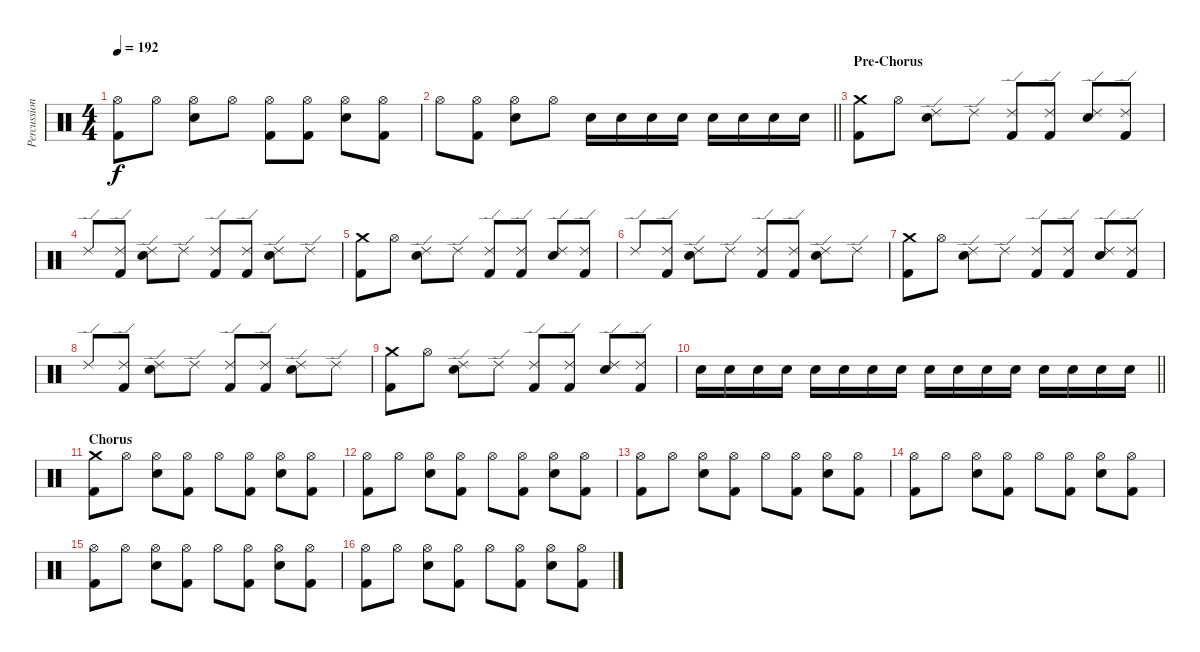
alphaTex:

\track ("Percussion" "Percussion") {instrument percussion}
\staff {score}
\articulation defaults
\ts (4 4)
\tempo 192
\clef neutral
\ks c
("Hi-Hat (open)" "Kick (hit) 2").8{dy f} "Hi-Hat (open)".8 ("Hi-Hat (open)" "Electric Snare (hit)").8 "Hi-Hat (open)".8 ("Hi-Hat (open)" "Kick (hit) 2").8 ("Hi-Hat (open)" "Kick (hit) 2").8 ("Hi-Hat (open)" "Electric Snare (hit)").8 ("Hi-Hat (open)" "Kick (hit) 2").8 |
\barLineRight lightlight "Hi-Hat (open)".8
("Hi-Hat (open)" "Kick (hit) 2").8 ("Hi-Hat (open)" "Electric Snare (hit)").8 "Hi-Hat (open)".8 "Electric Snare (hit)".16 "Electric Snare (hit)".16 "Electric Snare (hit)".16 "Electric Snare (hit)".16 "Electric Snare (hit)".16 "Electric Snare (hit)".16 "Electric Snare (hit)".16 "Electric Snare (hit)".16 |
\section ("" "Pre-Chorus")
("Crash medium (hit)" "Kick (hit) 2").8 "Hi-Hat (open)".8 ("Ride (edge) 2" "Electric Snare (hit)").8 "Ride (edge) 2".8 ("Ride (edge) 2" "Kick (hit) 2").8 ("Ride (edge) 2" "Kick (hit) 2").8 ("Ride (edge) 2" "Electric Snare (hit)").8 ("Ride (edge) 2" "Kick (hit) 2").8 |
"Ride (edge) 2".8 ("Ride (edge) 2" "Kick (hit) 2").8 ("Ride (edge) 2" "Electric Snare (hit)").8 "Ride (edge) 2".8 ("Ride (edge) 2" "Kick (hit) 2").8 ("Ride (edge) 2" "Kick (hit) 2").8 ("Ride (edge) 2" "Electric Snare (hit)").8 "Ride (edge) 2".8 |
("Crash medium (hit)" "Kick (hit) 2").8 "Hi-Hat (open)".8 ("Ride (edge) 2" "Electric Snare (hit)").8 "Ride (edge) 2".8 ("Ride (edge) 2" "Kick (hit) 2").8 ("Ride (edge) 2" "Kick (hit) 2").8 ("Ride (edge) 2" "Electric Snare (hit)").8 ("Ride (edge) 2" "Kick (hit) 2").8 |
"Ride (edge) 2".8 ("Ride (edge) 2" "Kick (hit) 2").8 ("Ride (edge) 2" "Electric Snare (hit)").8 "Ride (edge) 2".8 ("Ride (edge) 2" "Kick (hit) 2").8 ("Ride (edge) 2" "Kick (hit) 2").8 ("Ride (edge) 2" "Electric Snare (hit)").8 "Ride (edge) 2".8 |
("Crash medium (hit)" "Kick (hit) 2").8 "Hi-Hat (open)".8 ("Ride (edge) 2" "Electric Snare (hit)").8 "Ride (edge) 2".8 ("Ride (edge) 2" "Kick (hit) 2").8 ("Ride (edge) 2" "Kick (hit) 2").8 ("Ride (edge) 2" "Electric Snare (hit)").8 ("Ride (edge) 2" "Kick (hit) 2").8 |
"Ride (edge) 2".8 ("Ride (edge) 2" "Kick (hit) 2").8 ("Ride (edge) 2" "Electric Snare (hit)").8 "Ride (edge) 2".8 ("Ride (edge) 2" "Kick (hit) 2").8 ("Ride (edge) 2" "Kick (hit) 2").8 ("Ride (edge) 2" "Electric Snare (hit)").8 "Ride (edge) 2".8 |
("Crash medium (hit)" "Kick (hit) 2").8 "Hi-Hat (open)".8 ("Ride (edge) 2" "Electric Snare (hit)").8 "Ride (edge) 2".8 ("Ride (edge) 2" "Kick (hit) 2").8 ("Ride (edge) 2" "Kick (hit) 2").8 ("Ride (edge) 2" "Electric Snare (hit)").8 ("Ride (edge) 2" "Kick (hit) 2").8 |
\barLineRight lightlight "Electric Snare (hit)".16 "Electric Snare (hit)".16 "Electric Snare (hit)".16 "Electric Snare (hit)".16 "Electric Snare (hit)".16 "Electric Snare (hit)".16 "Electric Snare (hit)".16 "Electric Snare (hit)".16 "Electric Snare (hit)".16 "Electric Snare (hit)".16 "Electric Snare (hit)".16 "Electric Snare (hit)".16 "Electric Snare (hit)".16 "Electric Snare (hit)".16 "Electric Snare (hit)".16 "Electric Snare (hit)".16
|
\section ("" "Chorus")
("Crash medium (hit)" "Kick (hit) 2").8 "Hi-Hat (open)".8 ("Hi-Hat (open)" "Electric Snare (hit)").8 ("Hi-Hat (open)" "Kick (hit) 2").8 "Hi-Hat (open)".8 ("Hi-Hat (open)" "Kick (hit) 2").8 ("Hi-Hat (open)" "Electric Snare (hit)").8 ("Hi-Hat (open)" "Kick (hit) 2").8 |
("Hi-Hat (open)" "Kick (hit) 2").8 "Hi-Hat (open)".8 ("Hi-Hat (open)" "Electric Snare (hit)").8 ("Hi-Hat (open)" "Kick (hit) 2").8 "Hi-Hat (open)".8 ("Hi-Hat (open)" "Kick (hit) 2").8 ("Hi-Hat (open)" "Electric Snare (hit)").8 ("Hi-Hat (open)" "Kick (hit) 2").8 |
("Hi-Hat (open)" "Kick (hit) 2").8 "Hi-Hat (open)".8 ("Hi-Hat (open)" "Electric Snare (hit)").8 ("Hi-Hat (open)" "Kick (hit) 2").8 "Hi-Hat (open)".8 ("Hi-Hat (open)" "Kick (hit) 2").8 ("Hi-Hat (open)" "Electric Snare (hit)").8 ("Hi-Hat (open)" "Kick (hit) 2").8 |
("Hi-Hat (open)" "Kick (hit) 2").8 "Hi-Hat (open)".8 ("Hi-Hat (open)" "Electric Snare (hit)").8 ("Hi-Hat (open)" "Kick (hit) 2").8 "Hi-Hat (open)".8 ("Hi-Hat (open)" "Kick (hit) 2").8 ("Hi-Hat (open)" "Electric Snare (hit)").8 ("Hi-Hat (open)" "Kick (hit) 2").8 |
("Hi-Hat (open)" "Kick (hit) 2").8 "Hi-Hat (open)".8 ("Hi-Hat (open)" "Electric Snare (hit)").8 ("Hi-Hat (open)" "Kick (hit) 2").8 "Hi-Hat (open)".8 ("Hi-Hat (open)" "Kick (hit) 2").8 ("Hi-Hat (open)" "Electric Snare (hit)").8 ("Hi-Hat (open)" "Kick (hit) 2").8 |
("Hi-Hat (open)" "Kick (hit) 2").8 "Hi-Hat (open)".8 ("Hi-Hat (open)" "Electric Snare (hit)").8 ("Hi-Hat (open)" "Kick (hit) 2").8 "Hi-Hat (open)".8 ("Hi-Hat (open)" "Kick (hit) 2").8 ("Hi-Hat (open)" "Electric Snare (hit)").8 ("Hi-Hat (open)" "Kick (hit) 2").8
